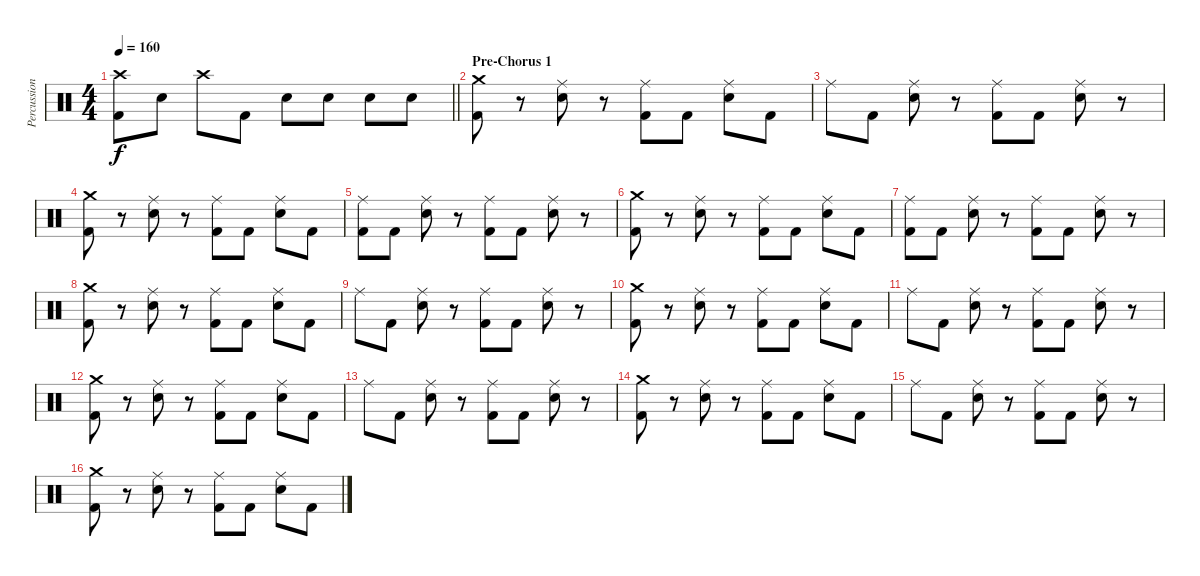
\track ("Percussion" "Percussion") {instrument percussion}
\staff {score}
\articulation defaults
\ts (4 4)
\tempo 160
\clef neutral
\barLineRight lightlight
\ks c
("Crash high (hit)" "Kick (hit) 2").8{dy f} "Electric Snare (hit)".8 "Crash high (hit)".8 "Kick (hit) 2".8 "Electric Snare (hit)".8 "Electric Snare (hit)".8 "Electric Snare (hit)".8 "Electric Snare (hit)".8 |
\section ("" "Pre-Chorus 1")
("Crash medium (hit)" "Kick (hit) 2").8 r.8 ("Ride (middle)" "Electric Snare (hit)").8 r.8 ("Ride (middle)" "Kick (hit) 2").8 "Kick (hit) 2".8 ("Ride (middle)" "Electric Snare (hit)").8 "Kick (hit) 2".8 |
"Ride (middle)".8 "Kick (hit) 2".8 ("Ride (middle)" "Electric Snare (hit)").8 r.8 ("Ride (middle)" "Kick (hit) 2").8 "Kick (hit) 2".8 ("Ride (middle)" "Electric Snare (hit)").8 r.8 |
("Crash medium (hit)" "Kick (hit) 2").8 r.8 ("Ride (middle)" "Electric Snare (hit)").8 r.8 ("Ride (middle)" "Kick (hit) 2").8 "Kick (hit) 2".8 ("Ride (middle)" "Electric Snare (hit)").8 "Kick (hit) 2".8 |
("Ride (middle)" "Kick (hit) 2").8 "Kick (hit) 2".8 ("Ride (middle)" "Electric Snare (hit)").8 r.8 ("Ride (middle)" "Kick (hit) 2").8 "Kick (hit) 2".8 ("Ride (middle)" "Electric Snare (hit)").8 r.8 |
("Crash medium (hit)" "Kick (hit) 2").8 r.8 ("Ride (middle)" "Electric Snare (hit)").8 r.8 ("Ride (middle)" "Kick (hit) 2").8 "Kick (hit) 2".8 ("Ride (middle)" "Electric Snare (hit)").8 "Kick (hit) 2".8 |
("Ride (middle)" "Kick (hit) 2").8 "Kick (hit) 2".8 ("Ride (middle)" "Electric Snare (hit)").8 r.8 ("Ride (middle)" "Kick (hit) 2").8 "Kick (hit) 2".8 ("Ride (middle)" "Electric Snare (hit)").8 r.8 |
("Crash medium (hit)" "Kick (hit) 2").8 r.8 ("Ride (middle)" "Electric Snare (hit)").8 r.8 ("Ride (middle)" "Kick (hit) 2").8 "Kick (hit) 2".8 ("Ride (middle)" "Electric Snare (hit)").8 "Kick (hit) 2".8 |
"Ride (middle)".8 "Kick (hit) 2".8 ("Ride (middle)" "Electric Snare (hit)").8 r.8 ("Ride (middle)" "Kick (hit) 2").8 "Kick (hit) 2".8 ("Ride (middle)" "Electric Snare (hit)").8 r.8 |
("Crash medium (hit)" "Kick (hit) 2").8 r.8 ("Ride (middle)" "Electric Snare (hit)").8 r.8 ("Ride (middle)" "Kick (hit) 2").8 "Kick (hit) 2".8 ("Ride (middle)" "Electric Snare (hit)").8 "Kick (hit) 2".8 |
"Ride (middle)".8 "Kick (hit) 2".8 ("Ride (middle)" "Electric Snare (hit)").8 r.8 ("Ride (middle)" "Kick (hit) 2").8 "Kick (hit) 2".8 ("Ride (middle)" "Electric Snare (hit)").8 r.8 |
("Crash medium (hit)" "Kick (hit) 2").8 r.8 ("Ride (middle)" "Electric Snare (hit)").8 r.8 ("Ride (middle)" "Kick (hit) 2").8 "Kick (hit) 2".8 ("Ride (middle)" "Electric Snare (hit)").8 "Kick (hit) 2".8 |
"Ride (middle)".8 "Kick (hit) 2".8 ("Ride (middle)" "Electric Snare (hit)").8 r.8 ("Ride (middle)" "Kick (hit) 2").8 "Kick (hit) 2".8 ("Ride (middle)" "Electric Snare (hit)").8 r.8 |
("Crash medium (hit)" "Kick (hit) 2").8 r.8 ("Ride (middle)" "Electric Snare (hit)").8 r.8 ("Ride (middle)" "Kick (hit) 2").8 "Kick (hit) 2".8 ("Ride (middle)" "Electric Snare (hit)").8 "Kick (hit) 2".8 |
"Ride (middle)".8 "Kick (hit) 2".8 ("Ride (middle)" "Electric Snare (hit)").8 r.8 ("Ride (middle)" "Kick (hit) 2").8 "Kick (hit) 2".8 ("Ride (middle)" "Electric Snare (hit)").8 r.8 |
("Crash medium (hit)" "Kick (hit) 2").8 r.8 ("Ride (middle)" "Electric Snare (hit)").8 r.8 ("Ride (middle)" "Kick (hit) 2").8 "Kick (hit) 2".8 ("Ride (middle)" "Electric Snare (hit)").8 "Kick (hit) 2".8
